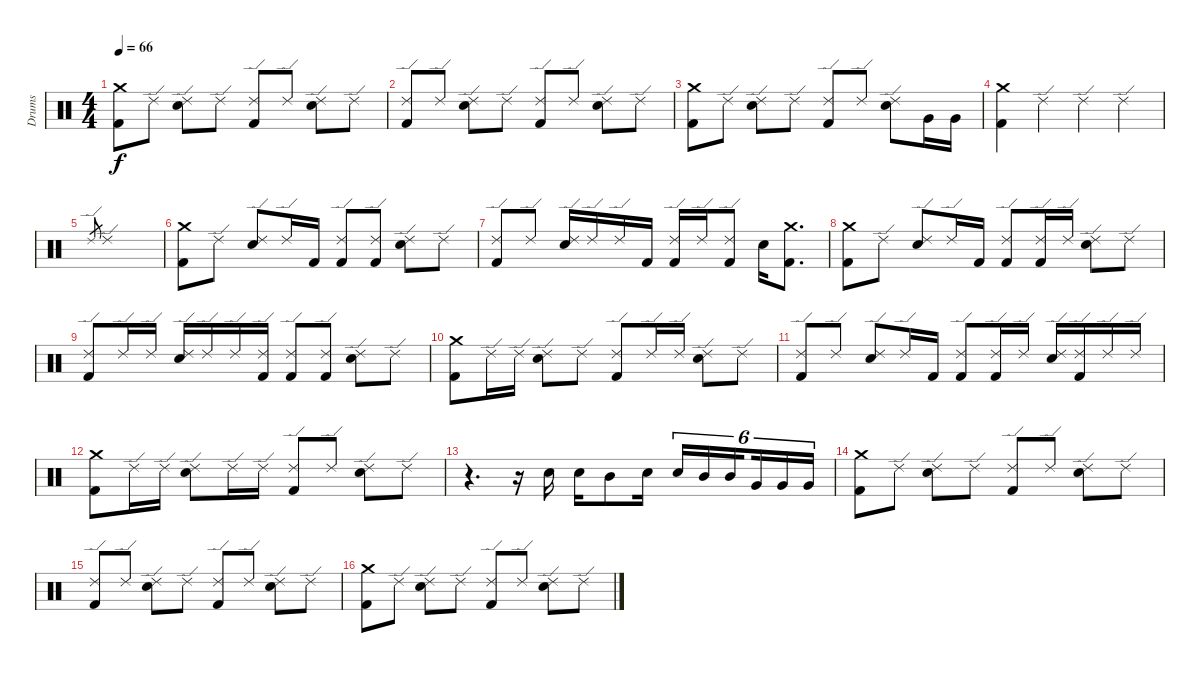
\track ("Drums" "Drums") {instrument percussion}
\staff {score}
\articulation defaults
\ts (4 4)
\tempo 66
\clef neutral
\ks c
("Kick (hit) 2" "Crash medium (hit)").8{dy f} "Ride (edge) 2".8 ("Snare (hit) 2" "Ride (edge) 2").8 "Ride (edge) 2".8 ("Kick (hit) 2" "Ride (edge) 2").8 "Ride (edge) 2".8 ("Snare (hit) 2" "Ride (edge) 2").8 "Ride (edge) 2".8 |
("Ride (edge) 2" "Kick (hit) 2").8 "Ride (edge) 2".8 ("Ride (edge) 2" "Snare (hit) 2").8 "Ride (edge) 2".8 ("Ride (edge) 2" "Kick (hit) 2").8 "Ride (edge) 2".8 ("Ride (edge) 2" "Snare (hit) 2").8 "Ride (edge) 2".8 |
("Crash medium (hit)" "Kick (hit) 2").8 "Ride (edge) 2".8 ("Ride (edge) 2" "Snare (hit) 2").8 "Ride (edge) 2".8 ("Ride (edge) 2" "Kick (hit) 2").8 "Ride (edge) 2".8 ("Ride (edge) 2" "Snare (hit) 2").8 "Very Low Tom (hit)".16 "Very Low Tom (hit)".16 |
("Kick (hit) 2" "Crash medium (hit)").4 "Ride (edge) 2".4 "Ride (edge) 2".4 "Ride (edge) 2".4 |
"Ride (edge) 2".8{gr} "Ride (edge) 2".1 |
("Crash medium (hit)" "Kick (hit) 2").8 "Ride (edge) 2".8 ("Ride (edge) 2" "Snare (hit) 2").8 "Ride (edge) 2".16 "Kick (hit) 2".16 ("Ride (edge) 2" "Kick (hit) 2").8 ("Ride (edge) 2" "Kick (hit) 2").8 ("Ride (edge) 2" "Snare (hit) 2").8 "Ride (edge) 2".8 |
("Ride (edge) 2" "Kick (hit) 2").8 "Ride (edge) 2".8 ("Ride (edge) 2" "Snare (hit) 2").16 "Ride (edge) 2".16 "Ride (edge) 2".16 "Kick (hit) 2".16 ("Ride (edge) 2" "Kick (hit) 2").16 "Ride (edge) 2".16 ("Ride (edge) 2" "Kick (hit) 2").8 "Snare (hit) 2".16 ("Crash medium (hit)" "Kick (hit) 2").8{d} |
("Crash medium (hit)" "Kick (hit) 2").8 "Ride (edge) 2".8 ("Snare (hit) 2" "Ride (edge) 2").8 "Ride (edge) 2".16 "Kick (hit) 2".16 ("Ride (edge) 2" "Kick (hit) 2").8 ("Ride (edge) 2" "Kick (hit) 2").16 "Ride (edge) 2".16 ("Snare (hit) 2" "Ride (edge) 2").8 "Ride (edge) 2".8 |
("Ride (edge) 2" "Kick (hit) 2").8 "Ride (edge) 2".16 "Ride (edge) 2".16 ("Ride (edge) 2" "Snare (hit) 2").16 "Ride (edge) 2".16 "Ride (edge) 2".16 ("Ride (edge) 2" "Kick (hit) 2").16 ("Ride (edge) 2" "Kick (hit) 2").8 ("Ride (edge) 2" "Kick (hit) 2").8 ("Ride (edge) 2" "Snare (hit) 2").8 "Ride (edge) 2".8 |
("Crash medium (hit)" "Kick (hit) 2").8 "Ride (edge) 2".16 "Ride (edge) 2".16 ("Ride (edge) 2" "Snare (hit) 2").8 "Ride (edge) 2".8 ("Ride (edge) 2" "Kick (hit) 2").8 "Ride (edge) 2".16 "Ride (edge) 2".16 ("Ride (edge) 2" "Snare (hit) 2").8 "Ride (edge) 2".8 |
("Kick (hit) 2" "Ride (edge) 2").8 "Ride (edge) 2".8 ("Snare (hit) 2" "Ride (edge) 2").8 "Ride (edge) 2".16 "Kick (hit) 2".16 ("Kick (hit) 2" "Ride (edge) 2").8 ("Kick (hit) 2" "Ride (edge) 2").16 "Ride (edge) 2".16 ("Snare (hit) 2" "Ride (edge) 2").16 ("Kick (hit) 2" "Ride (edge) 2").16 "Ride (edge) 2".16 "Ride (edge) 2".16 |
("Crash medium (hit)" "Kick (hit) 2").8 "Ride (edge) 2".16 "Ride (edge) 2".16 ("Snare (hit) 2" "Ride (edge) 2").8 "Ride (edge) 2".16 "Ride (edge) 2".16 ("Ride (edge) 2" "Kick (hit) 2").8 "Ride (edge) 2".8 ("Snare (hit) 2" "Ride (edge) 2").8 "Ride (edge) 2".8 |
r.4{d} r.16 "Snare (hit) 2".16 "Snare (hit) 2".16 "Mid Tom (hit)".8 "Snare (hit) 2".16 "Snare (hit) 2".16{tu (6 4)} "Mid Tom (hit)".16{tu (6 4)} "Mid Tom (hit)".16{tu (6 4) beam splitsecondary} "Very Low Tom (hit)".16{tu (6 4)} "Very Low Tom (hit)".16{tu (6 4)} "Very Low Tom (hit)".16{tu (6 4)} |
("Kick (hit) 2" "Crash medium (hit)").8 "Ride (edge) 2".8 ("Snare (hit) 2" "Ride (edge) 2").8 "Ride (edge) 2".8 ("Kick (hit) 2" "Ride (edge) 2").8 "Ride (edge) 2".8 ("Snare (hit) 2" "Ride (edge) 2").8 "Ride (edge) 2".8 |
("Ride (edge) 2" "Kick (hit) 2").8 "Ride (edge) 2".8 ("Ride (edge) 2" "Snare (hit) 2").8 "Ride (edge) 2".8 ("Ride (edge) 2" "Kick (hit) 2").8 "Ride (edge) 2".8 ("Ride (edge) 2" "Snare (hit) 2").8 "Ride (edge) 2".8 |
("Crash medium (hit)" "Kick (hit) 2").8 "Ride (edge) 2".8 ("Ride (edge) 2" "Snare (hit) 2").8 "Ride (edge) 2".8 ("Ride (edge) 2" "Kick (hit) 2").8 "Ride (edge) 2".8 ("Ride (edge) 2" "Snare (hit) 2").8 "Ride (edge) 2".8
